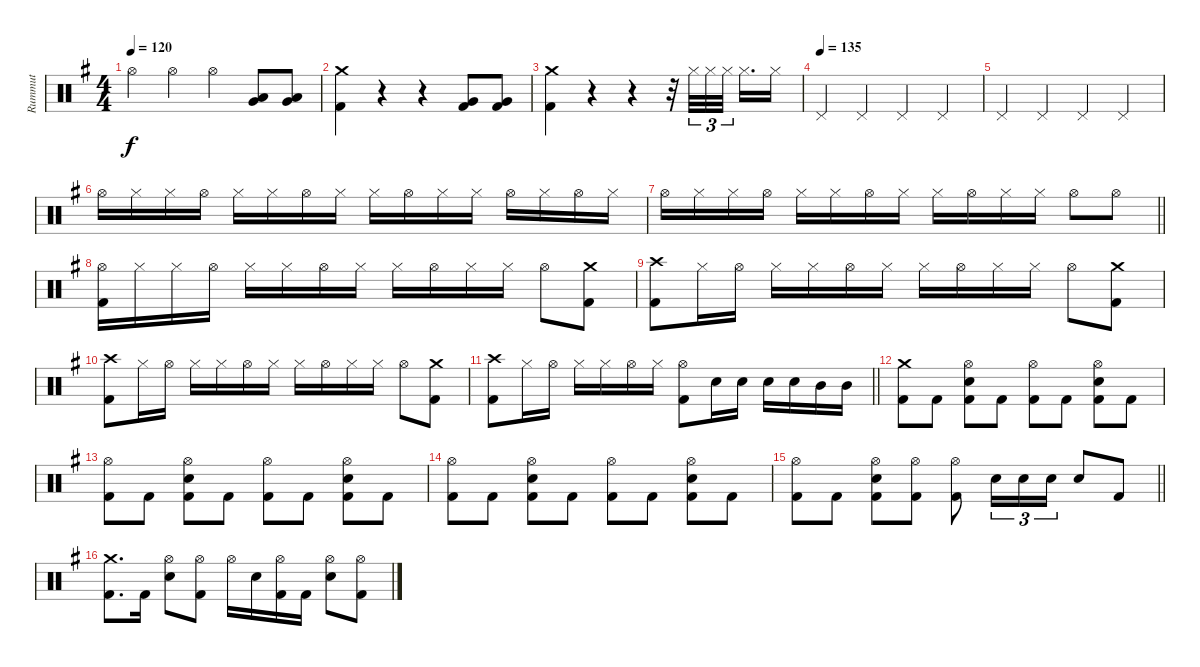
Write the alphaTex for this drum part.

\track ("Rummut" "Rummut") {instrument percussion}
\staff {score}
\articulation defaults
\ts (4 4)
\tempo 120
\tempo 60
\tempo 120
\clef neutral
\ks g "Hi-Hat (open)".4{dy f} "Hi-Hat (open)".4 "Hi-Hat (open)".4
("Low Tom (hit)" "Very Low Tom (hit)").8 ("Low Tom (hit)" "Very Low Tom (hit)").8 |
("Crash medium (hit)" "Kick (hit) 2").4 r.4 r.4 ("Very Low Tom (hit)" "Kick (hit) 2").8 ("Very Low Tom (hit)" "Kick (hit) 2").8 |
("Crash medium (hit)" "Kick (hit) 2").4 r.4 r.4 r.32 "Hi-Hat (closed)".32{tu (3 2)} "Hi-Hat (closed)".32{tu (3 2)} "Hi-Hat (closed)".32{tu (3 2) beam splitsecondary} "Hi-Hat (closed)".16{d} "Hi-Hat (closed)".16 |
\tempo (135)
"Pedal Hi-Hat (hit)".4 "Pedal Hi-Hat (hit)".4 "Pedal Hi-Hat (hit)".4 "Pedal Hi-Hat (hit)".4 |
"Pedal Hi-Hat (hit)".4 "Pedal Hi-Hat (hit)".4 "Pedal Hi-Hat (hit)".4 "Pedal Hi-Hat (hit)".4 |
"Hi-Hat (open)".16 "Hi-Hat (closed)".16 "Hi-Hat (closed)".16 "Hi-Hat (open)".16 "Hi-Hat (closed)".16 "Hi-Hat (closed)".16 "Hi-Hat (open)".16 "Hi-Hat (closed)".16 "Hi-Hat (closed)".16 "Hi-Hat (open)".16 "Hi-Hat (closed)".16 "Hi-Hat (closed)".16 "Hi-Hat (open)".16 "Hi-Hat (closed)".16 "Hi-Hat (open)".16 "Hi-Hat (closed)".16 |
\barLineRight lightlight "Hi-Hat (open)".16 "Hi-Hat (closed)".16 "Hi-Hat (closed)".16 "Hi-Hat (open)".16 "Hi-Hat (closed)".16 "Hi-Hat (closed)".16 "Hi-Hat (open)".16 "Hi-Hat (closed)".16 "Hi-Hat (closed)".16 "Hi-Hat (open)".16 "Hi-Hat (closed)".16 "Hi-Hat (closed)".16 "Hi-Hat (open)".8 "Hi-Hat (open)".8
|
("Hi-Hat (open)" "Kick (hit) 2").16 "Hi-Hat (closed)".16 "Hi-Hat (closed)".16 "Hi-Hat (open)".16 "Hi-Hat (closed)".16 "Hi-Hat (closed)".16 "Hi-Hat (open)".16 "Hi-Hat (closed)".16 "Hi-Hat (closed)".16 "Hi-Hat (open)".16 "Hi-Hat (closed)".16 "Hi-Hat (closed)".16 "Hi-Hat (open)".8 ("Crash medium (hit)" "Kick (hit) 2").8 |
("Crash high (hit)" "Kick (hit) 2").8 "Hi-Hat (closed)".16 "Hi-Hat (open)".16 "Hi-Hat (closed)".16 "Hi-Hat (closed)".16 "Hi-Hat (open)".16 "Hi-Hat (closed)".16 "Hi-Hat (closed)".16 "Hi-Hat (open)".16 "Hi-Hat (closed)".16 "Hi-Hat (closed)".16 "Hi-Hat (open)".8 ("Crash medium (hit)" "Kick (hit) 2").8 |
("Crash high (hit)" "Kick (hit) 2").8 "Hi-Hat (closed)".16 "Hi-Hat (open)".16 "Hi-Hat (closed)".16 "Hi-Hat (closed)".16 "Hi-Hat (open)".16 "Hi-Hat (closed)".16 "Hi-Hat (closed)".16 "Hi-Hat (open)".16 "Hi-Hat (closed)".16 "Hi-Hat (closed)".16 "Hi-Hat (open)".8 ("Crash medium (hit)" "Kick (hit) 2").8 |
\barLineRight lightlight
("Crash high (hit)" "Kick (hit) 2").8 "Hi-Hat (closed)".16 "Hi-Hat (open)".16 "Hi-Hat (closed)".16 "Hi-Hat (closed)".16 "Hi-Hat (open)".16 "Hi-Hat (closed)".16 ("Hi-Hat (open)" "Kick (hit) 2").8 "Snare (hit) 2".16 "Snare (hit) 2".16 "Snare (hit) 2".16 "Snare (hit) 2".16 "Mid Tom (hit)".16 "Mid Tom (hit)".16 |
("Crash medium (hit)" "Kick (hit) 2").8 "Kick (hit) 2".8 ("Hi-Hat (open)" "Snare (hit) 2" "Kick (hit) 2").8 "Kick (hit) 2".8 ("Hi-Hat (open)" "Kick (hit) 2").8 "Kick (hit) 2".8 ("Hi-Hat (open)" "Snare (hit) 2" "Kick (hit) 2").8 "Kick (hit) 2".8 |
("Hi-Hat (open)" "Kick (hit) 2").8 "Kick (hit) 2".8 ("Hi-Hat (open)" "Snare (hit) 2" "Kick (hit) 2").8 "Kick (hit) 2".8 ("Hi-Hat (open)" "Kick (hit) 2").8 "Kick (hit) 2".8 ("Hi-Hat (open)" "Snare (hit) 2" "Kick (hit) 2").8 "Kick (hit) 2".8 |
("Hi-Hat (open)" "Kick (hit) 2").8 "Kick (hit) 2".8 ("Hi-Hat (open)" "Snare (hit) 2" "Kick (hit) 2").8 "Kick (hit) 2".8 ("Hi-Hat (open)" "Kick (hit) 2").8 "Kick (hit) 2".8 ("Hi-Hat (open)" "Snare (hit) 2" "Kick (hit) 2").8 "Kick (hit) 2".8 |
\barLineRight lightlight
("Hi-Hat (open)" "Kick (hit) 2").8 "Kick (hit) 2".8 ("Hi-Hat (open)" "Snare (hit) 2" "Kick (hit) 2").8 ("Hi-Hat (open)" "Kick (hit) 2").8 ("Hi-Hat (open)" "Kick (hit) 2").8 "Snare (hit) 2".16{tu (3 2)} "Snare (hit) 2".16{tu (3 2)} "Snare (hit) 2".16{tu (3 2)} "Snare (hit) 2".8 "Kick (hit) 2".8 |
("Crash medium (hit)" "Kick (hit) 2").8{d} "Kick (hit) 2".16 ("Hi-Hat (open)" "Snare (hit) 2").8 ("Hi-Hat (open)" "Kick (hit) 2").8 "Hi-Hat (open)".16 "Snare (hit) 2".16 ("Hi-Hat (open)" "Kick (hit) 2").16 "Kick (hit) 2".16 ("Hi-Hat (open)" "Snare (hit) 2").8 ("Hi-Hat (open)" "Kick (hit) 2").8
